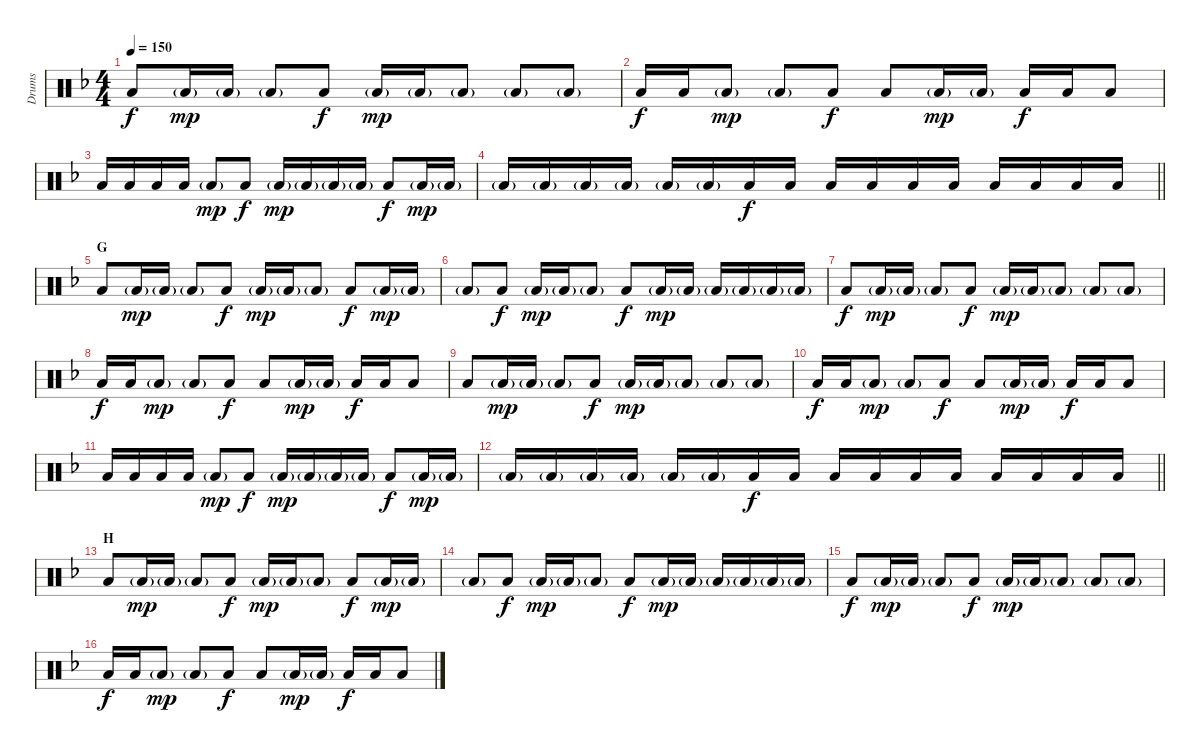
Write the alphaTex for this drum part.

\track ("Drums" "Drums") {instrument percussion}
\staff {score}
\articulation defaults
\ts (4 4)
\tempo 150
\clef neutral
\ks f "Low Tom (hit)".8{dy f} "Low Tom (hit)"{g}.16{dy mp} "Low Tom (hit)"{g}.16 "Low Tom (hit)"{g}.8 "Low Tom (hit)".8{dy f} "Low Tom (hit)"{g}.16{dy mp} "Low Tom (hit)"{g}.16 "Low Tom (hit)"{g}.8 "Low Tom (hit)"{g}.8 "Low Tom (hit)"{g}.8
|
"Low Tom (hit)".16{dy f} "Low Tom (hit)".16 "Low Tom (hit)"{g}.8{dy mp} "Low Tom (hit)"{g}.8 "Low Tom (hit)".8{dy f} "Low Tom (hit)".8 "Low Tom (hit)"{g}.16{dy mp} "Low Tom (hit)"{g}.16 "Low Tom (hit)".16{dy f} "Low Tom (hit)".16 "Low Tom (hit)".8 |
"Low Tom (hit)".16 "Low Tom (hit)".16 "Low Tom (hit)".16 "Low Tom (hit)".16 "Low Tom (hit)"{g}.8{dy mp} "Low Tom (hit)".8{dy f} "Low Tom (hit)"{g}.16{dy mp} "Low Tom (hit)"{g}.16 "Low Tom (hit)"{g}.16 "Low Tom (hit)"{g}.16 "Low Tom (hit)".8{dy f} "Low Tom (hit)"{g}.16{dy mp} "Low Tom (hit)"{g}.16 |
\barLineRight lightlight "Low Tom (hit)"{g}.16 "Low Tom (hit)"{g}.16 "Low Tom (hit)"{g}.16 "Low Tom (hit)"{g}.16 "Low Tom (hit)"{g}.16 "Low Tom (hit)"{g}.16 "Low Tom (hit)".16{dy f} "Low Tom (hit)".16 "Low Tom (hit)".16 "Low Tom (hit)".16 "Low Tom (hit)".16 "Low Tom (hit)".16 "Low Tom (hit)".16 "Low Tom (hit)".16 "Low Tom (hit)".16 "Low Tom (hit)".16
|
\section ("" "G")
"Low Tom (hit)".8 "Low Tom (hit)"{g}.16{dy mp} "Low Tom (hit)"{g}.16 "Low Tom (hit)"{g}.8 "Low Tom (hit)".8{dy f} "Low Tom (hit)"{g}.16{dy mp} "Low Tom (hit)"{g}.16 "Low Tom (hit)"{g}.8 "Low Tom (hit)".8{dy f} "Low Tom (hit)"{g}.16{dy mp} "Low Tom (hit)"{g}.16 |
"Low Tom (hit)"{g}.8 "Low Tom (hit)".8{dy f} "Low Tom (hit)"{g}.16{dy mp} "Low Tom (hit)"{g}.16 "Low Tom (hit)"{g}.8 "Low Tom (hit)".8{dy f} "Low Tom (hit)"{g}.16{dy mp} "Low Tom (hit)"{g}.16 "Low Tom (hit)"{g}.16 "Low Tom (hit)"{g}.16 "Low Tom (hit)"{g}.16 "Low Tom (hit)"{g}.16 |
"Low Tom (hit)".8{dy f} "Low Tom (hit)"{g}.16{dy mp} "Low Tom (hit)"{g}.16 "Low Tom (hit)"{g}.8 "Low Tom (hit)".8{dy f} "Low Tom (hit)"{g}.16{dy mp} "Low Tom (hit)"{g}.16 "Low Tom (hit)"{g}.8 "Low Tom (hit)"{g}.8 "Low Tom (hit)"{g}.8 |
"Low Tom (hit)".16{dy f} "Low Tom (hit)".16 "Low Tom (hit)"{g}.8{dy mp} "Low Tom (hit)"{g}.8 "Low Tom (hit)".8{dy f} "Low Tom (hit)".8 "Low Tom (hit)"{g}.16{dy mp} "Low Tom (hit)"{g}.16 "Low Tom (hit)".16{dy f} "Low Tom (hit)".16 "Low Tom (hit)".8 |
"Low Tom (hit)".8 "Low Tom (hit)"{g}.16{dy mp} "Low Tom (hit)"{g}.16 "Low Tom (hit)"{g}.8 "Low Tom (hit)".8{dy f} "Low Tom (hit)"{g}.16{dy mp} "Low Tom (hit)"{g}.16 "Low Tom (hit)"{g}.8 "Low Tom (hit)"{g}.8 "Low Tom (hit)"{g}.8 |
"Low Tom (hit)".16{dy f} "Low Tom (hit)".16 "Low Tom (hit)"{g}.8{dy mp} "Low Tom (hit)"{g}.8 "Low Tom (hit)".8{dy f} "Low Tom (hit)".8 "Low Tom (hit)"{g}.16{dy mp} "Low Tom (hit)"{g}.16 "Low Tom (hit)".16{dy f} "Low Tom (hit)".16 "Low Tom (hit)".8 |
"Low Tom (hit)".16 "Low Tom (hit)".16 "Low Tom (hit)".16 "Low Tom (hit)".16 "Low Tom (hit)"{g}.8{dy mp} "Low Tom (hit)".8{dy f} "Low Tom (hit)"{g}.16{dy mp} "Low Tom (hit)"{g}.16 "Low Tom (hit)"{g}.16 "Low Tom (hit)"{g}.16 "Low Tom (hit)".8{dy f} "Low Tom (hit)"{g}.16{dy mp} "Low Tom (hit)"{g}.16 |
\barLineRight lightlight "Low Tom (hit)"{g}.16 "Low Tom (hit)"{g}.16 "Low Tom (hit)"{g}.16 "Low Tom (hit)"{g}.16 "Low Tom (hit)"{g}.16 "Low Tom (hit)"{g}.16 "Low Tom (hit)".16{dy f} "Low Tom (hit)".16 "Low Tom (hit)".16 "Low Tom (hit)".16 "Low Tom (hit)".16 "Low Tom (hit)".16 "Low Tom (hit)".16 "Low Tom (hit)".16 "Low Tom (hit)".16 "Low Tom (hit)".16
|
\section ("" "H")
"Low Tom (hit)".8 "Low Tom (hit)"{g}.16{dy mp} "Low Tom (hit)"{g}.16 "Low Tom (hit)"{g}.8 "Low Tom (hit)".8{dy f} "Low Tom (hit)"{g}.16{dy mp} "Low Tom (hit)"{g}.16 "Low Tom (hit)"{g}.8 "Low Tom (hit)".8{dy f} "Low Tom (hit)"{g}.16{dy mp} "Low Tom (hit)"{g}.16 |
"Low Tom (hit)"{g}.8 "Low Tom (hit)".8{dy f} "Low Tom (hit)"{g}.16{dy mp} "Low Tom (hit)"{g}.16 "Low Tom (hit)"{g}.8 "Low Tom (hit)".8{dy f} "Low Tom (hit)"{g}.16{dy mp} "Low Tom (hit)"{g}.16 "Low Tom (hit)"{g}.16 "Low Tom (hit)"{g}.16 "Low Tom (hit)"{g}.16 "Low Tom (hit)"{g}.16 |
"Low Tom (hit)".8{dy f} "Low Tom (hit)"{g}.16{dy mp} "Low Tom (hit)"{g}.16 "Low Tom (hit)"{g}.8 "Low Tom (hit)".8{dy f} "Low Tom (hit)"{g}.16{dy mp} "Low Tom (hit)"{g}.16 "Low Tom (hit)"{g}.8 "Low Tom (hit)"{g}.8 "Low Tom (hit)"{g}.8 |
"Low Tom (hit)".16{dy f} "Low Tom (hit)".16 "Low Tom (hit)"{g}.8{dy mp} "Low Tom (hit)"{g}.8 "Low Tom (hit)".8{dy f} "Low Tom (hit)".8 "Low Tom (hit)"{g}.16{dy mp} "Low Tom (hit)"{g}.16 "Low Tom (hit)".16{dy f} "Low Tom (hit)".16 "Low Tom (hit)".8
